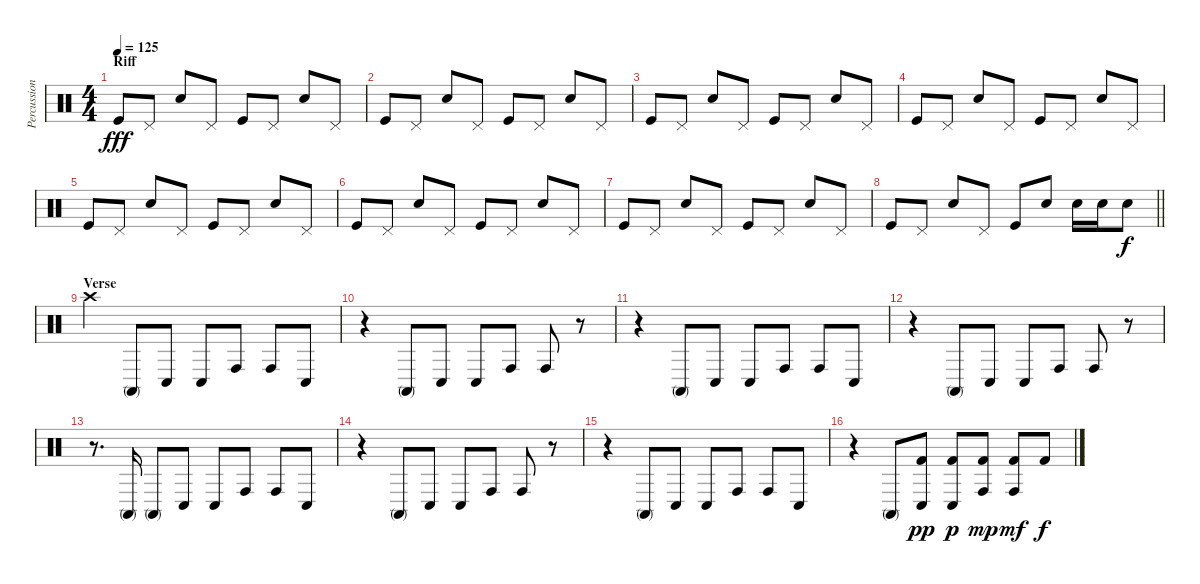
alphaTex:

\track ("Percussion" "Percussion") {instrument percussion}
\staff {score}
\articulation defaults
\ts (4 4)
\section ("" "Riff")
\tempo 125
\clef neutral
\ks c "Kick (hit)".8{dy fff} "Pedal Hi-Hat (hit)".8 "Electric Snare (hit)".8 "Pedal Hi-Hat (hit)".8 "Kick (hit)".8 "Pedal Hi-Hat (hit)".8 "Electric Snare (hit)".8 "Pedal Hi-Hat (hit)".8
|
"Kick (hit)".8 "Pedal Hi-Hat (hit)".8 "Electric Snare (hit)".8 "Pedal Hi-Hat (hit)".8 "Kick (hit)".8 "Pedal Hi-Hat (hit)".8 "Electric Snare (hit)".8 "Pedal Hi-Hat (hit)".8 |
"Kick (hit)".8 "Pedal Hi-Hat (hit)".8 "Electric Snare (hit)".8 "Pedal Hi-Hat (hit)".8 "Kick (hit)".8 "Pedal Hi-Hat (hit)".8 "Electric Snare (hit)".8 "Pedal Hi-Hat (hit)".8 |
"Kick (hit)".8 "Pedal Hi-Hat (hit)".8 "Electric Snare (hit)".8 "Pedal Hi-Hat (hit)".8 "Kick (hit)".8 "Pedal Hi-Hat (hit)".8 "Electric Snare (hit)".8 "Pedal Hi-Hat (hit)".8 |
"Kick (hit)".8 "Pedal Hi-Hat (hit)".8 "Electric Snare (hit)".8 "Pedal Hi-Hat (hit)".8 "Kick (hit)".8 "Pedal Hi-Hat (hit)".8 "Electric Snare (hit)".8 "Pedal Hi-Hat (hit)".8 |
"Kick (hit)".8 "Pedal Hi-Hat (hit)".8 "Electric Snare (hit)".8 "Pedal Hi-Hat (hit)".8 "Kick (hit)".8 "Pedal Hi-Hat (hit)".8 "Electric Snare (hit)".8 "Pedal Hi-Hat (hit)".8 |
"Kick (hit)".8 "Pedal Hi-Hat (hit)".8 "Electric Snare (hit)".8 "Pedal Hi-Hat (hit)".8 "Kick (hit)".8 "Pedal Hi-Hat (hit)".8 "Electric Snare (hit)".8 "Pedal Hi-Hat (hit)".8 |
\barLineRight lightlight "Kick (hit)".8 "Pedal Hi-Hat (hit)".8 "Electric Snare (hit)".8 "Pedal Hi-Hat (hit)".8 "Kick (hit)".8 "Electric Snare (hit)".8 "Electric Snare (hit)".16 "Electric Snare (hit)".16 "Electric Snare (hit)".8{dy f}
|
\section ("" "Verse")
"Crash high (hit)".4 "Conga high (mute)".8 "Conga low (hit)".8 "Conga low (hit)".8 "Conga high (hit)".8 "Conga high (hit)".8 "Conga low (hit)".8 |
r.4 "Conga high (mute)".8 "Conga low (hit)".8 "Conga low (hit)".8 "Conga high (hit)".8 "Conga high (hit)".8 r.8 |
r.4 "Conga high (mute)".8 "Conga low (hit)".8 "Conga low (hit)".8 "Conga high (hit)".8 "Conga high (hit)".8 "Conga low (hit)".8 |
r.4 "Conga high (mute)".8 "Conga low (hit)".8 "Conga low (hit)".8 "Conga high (hit)".8 "Conga high (hit)".8 r.8 |
r.8{d} "Conga high (mute)".16 "Conga high (mute)".8 "Conga low (hit)".8 "Conga low (hit)".8 "Conga high (hit)".8 "Conga high (hit)".8 "Conga low (hit)".8 |
r.4 "Conga high (mute)".8 "Conga low (hit)".8 "Conga low (hit)".8 "Conga high (hit)".8 "Conga high (hit)".8 r.8 |
r.4 "Conga high (mute)".8 "Conga low (hit)".8 "Conga low (hit)".8 "Conga high (hit)".8 "Conga high (hit)".8 "Conga low (hit)".8 |
r.4 "Conga high (mute)".8 ("Kick (hit) 2" "Conga low (hit)").8{dy pp} ("Kick (hit) 2" "Conga low (hit)").8{dy p} ("Kick (hit) 2" "Conga high (hit)").8{dy mp} ("Kick (hit) 2" "Conga high (hit)").8{dy mf} "Kick (hit) 2".8{dy f}
